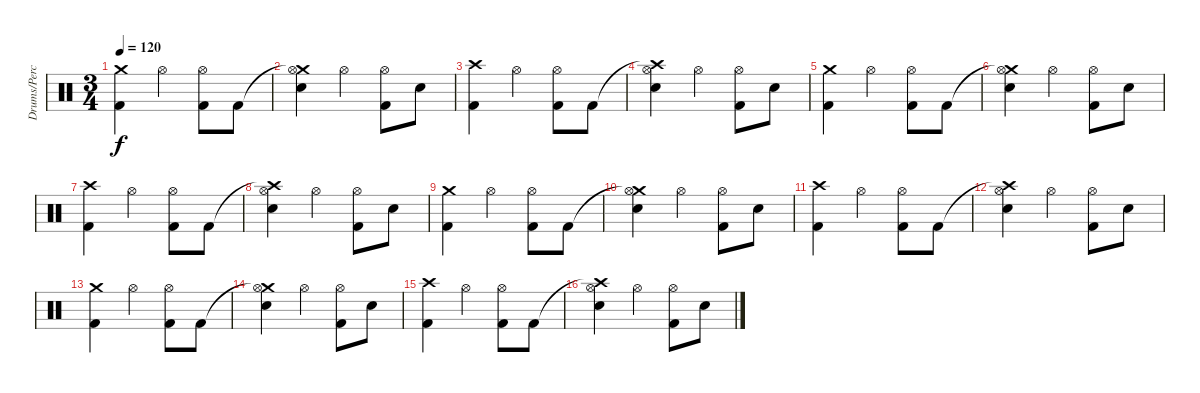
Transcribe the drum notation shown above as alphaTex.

\track ("Drums/Percussion" "Drums/Perc") {instrument percussion}
\staff {score}
\articulation defaults
\ts (3 4)
\tempo 120
\clef neutral
\ks c
("Crash medium (hit)" "Kick (hit) 2").4{dy f} "Hi-Hat (open)".4 ("Hi-Hat (open)" "Kick (hit) 2").8 "Kick (hit) 2".8 |
("Crash medium (hit)"{t} "Hi-Hat (open)" "Snare (hit) 2").4 "Hi-Hat (open)".4 ("Hi-Hat (open)" "Kick (hit) 2").8 "Snare (hit) 2".8 |
("Crash high (hit)" "Kick (hit) 2").4 "Hi-Hat (open)".4 ("Hi-Hat (open)" "Kick (hit) 2").8 "Kick (hit) 2".8 |
("Crash high (hit)"{t} "Hi-Hat (open)" "Snare (hit) 2").4 "Hi-Hat (open)".4 ("Hi-Hat (open)" "Kick (hit) 2").8 "Snare (hit) 2".8 |
("Crash medium (hit)" "Kick (hit) 2").4 "Hi-Hat (open)".4 ("Hi-Hat (open)" "Kick (hit) 2").8 "Kick (hit) 2".8 |
("Crash medium (hit)"{t} "Hi-Hat (open)" "Snare (hit) 2").4 "Hi-Hat (open)".4 ("Hi-Hat (open)" "Kick (hit) 2").8 "Snare (hit) 2".8 |
("Crash high (hit)" "Kick (hit) 2").4 "Hi-Hat (open)".4 ("Hi-Hat (open)" "Kick (hit) 2").8 "Kick (hit) 2".8 |
("Crash high (hit)"{t} "Hi-Hat (open)" "Snare (hit) 2").4 "Hi-Hat (open)".4 ("Hi-Hat (open)" "Kick (hit) 2").8 "Snare (hit) 2".8 |
("Crash medium (hit)" "Kick (hit) 2").4 "Hi-Hat (open)".4 ("Hi-Hat (open)" "Kick (hit) 2").8 "Kick (hit) 2".8 |
("Crash medium (hit)"{t} "Hi-Hat (open)" "Snare (hit) 2").4 "Hi-Hat (open)".4 ("Hi-Hat (open)" "Kick (hit) 2").8 "Snare (hit) 2".8 |
("Crash high (hit)" "Kick (hit) 2").4 "Hi-Hat (open)".4 ("Hi-Hat (open)" "Kick (hit) 2").8 "Kick (hit) 2".8 |
("Crash high (hit)"{t} "Hi-Hat (open)" "Snare (hit) 2").4 "Hi-Hat (open)".4 ("Hi-Hat (open)" "Kick (hit) 2").8 "Snare (hit) 2".8 |
("Crash medium (hit)" "Kick (hit) 2").4 "Hi-Hat (open)".4 ("Hi-Hat (open)" "Kick (hit) 2").8 "Kick (hit) 2".8 |
("Crash medium (hit)"{t} "Hi-Hat (open)" "Snare (hit) 2").4 "Hi-Hat (open)".4 ("Hi-Hat (open)" "Kick (hit) 2").8 "Snare (hit) 2".8 |
("Crash high (hit)" "Kick (hit) 2").4 "Hi-Hat (open)".4 ("Hi-Hat (open)" "Kick (hit) 2").8 "Kick (hit) 2".8 |
("Crash high (hit)"{t} "Hi-Hat (open)" "Snare (hit) 2").4 "Hi-Hat (open)".4 ("Hi-Hat (open)" "Kick (hit) 2").8 "Snare (hit) 2".8
